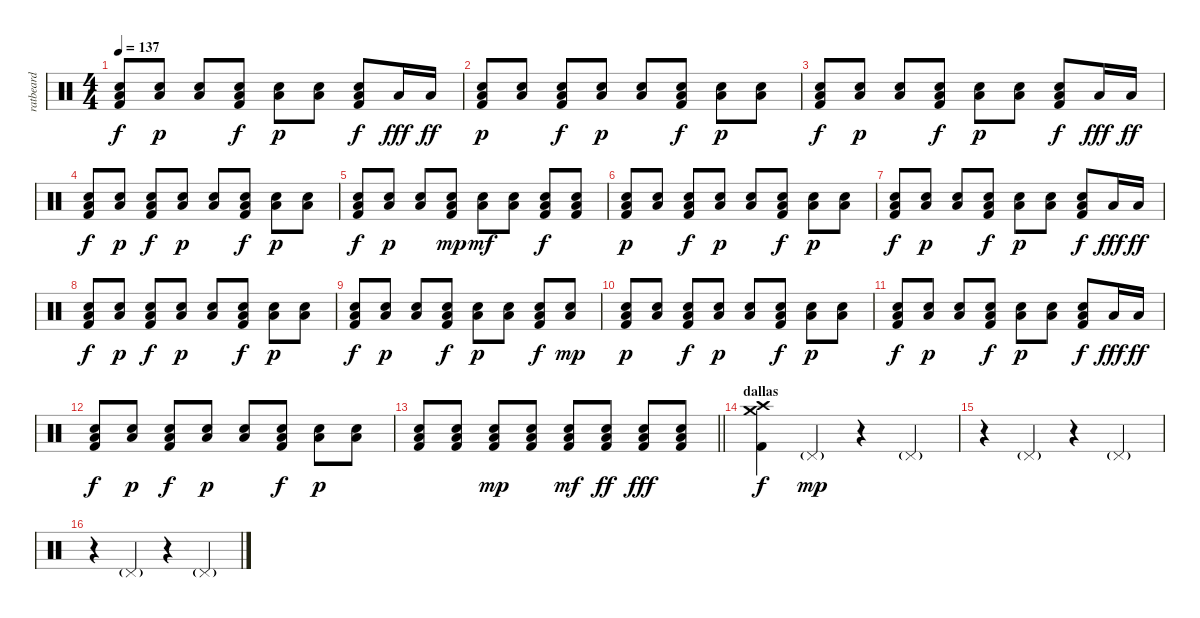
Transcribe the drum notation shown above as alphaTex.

\track ("ratbeard" "ratbeard") {instrument percussion}
\staff {score}
\articulation defaults
\ts (4 4)
\tempo 137
\clef neutral
\ks c
("Low Floor Tom (hit)" "Electric Snare (hit)" "Kick (hit) 2").8{dy f} ("Low Floor Tom (hit)" "Electric Snare (hit)").8{dy p} ("Low Floor Tom (hit)" "Electric Snare (hit)").8 ("Low Floor Tom (hit)" "Electric Snare (hit)" "Kick (hit) 2").8{dy f} ("Low Floor Tom (hit)" "Electric Snare (hit)").8{dy p} ("Low Floor Tom (hit)" "Electric Snare (hit)").8 ("Low Floor Tom (hit)" "Electric Snare (hit)" "Kick (hit) 2").8{dy f} "Low Floor Tom (hit)".16{dy fff} "Low Floor Tom (hit)".16{dy ff} |
("Low Floor Tom (hit)" "Electric Snare (hit)" "Kick (hit) 2").8{dy p} ("Low Floor Tom (hit)" "Electric Snare (hit)").8 ("Low Floor Tom (hit)" "Electric Snare (hit)" "Kick (hit) 2").8{dy f} ("Low Floor Tom (hit)" "Electric Snare (hit)").8{dy p} ("Low Floor Tom (hit)" "Electric Snare (hit)").8 ("Low Floor Tom (hit)" "Electric Snare (hit)" "Kick (hit) 2").8{dy f} ("Low Floor Tom (hit)" "Electric Snare (hit)").8{dy p} ("Low Floor Tom (hit)" "Electric Snare (hit)").8 |
("Low Floor Tom (hit)" "Electric Snare (hit)" "Kick (hit) 2").8{dy f} ("Low Floor Tom (hit)" "Electric Snare (hit)").8{dy p} ("Low Floor Tom (hit)" "Electric Snare (hit)").8 ("Low Floor Tom (hit)" "Electric Snare (hit)" "Kick (hit) 2").8{dy f} ("Low Floor Tom (hit)" "Electric Snare (hit)").8{dy p} ("Low Floor Tom (hit)" "Electric Snare (hit)").8 ("Low Floor Tom (hit)" "Electric Snare (hit)" "Kick (hit) 2").8{dy f} "Low Floor Tom (hit)".16{dy fff} "Low Floor Tom (hit)".16{dy ff} |
("Low Floor Tom (hit)" "Electric Snare (hit)" "Kick (hit) 2").8{dy f} ("Low Floor Tom (hit)" "Electric Snare (hit)").8{dy p} ("Low Floor Tom (hit)" "Electric Snare (hit)" "Kick (hit) 2").8{dy f} ("Low Floor Tom (hit)" "Electric Snare (hit)").8{dy p} ("Low Floor Tom (hit)" "Electric Snare (hit)").8 ("Low Floor Tom (hit)" "Electric Snare (hit)" "Kick (hit) 2").8{dy f} ("Low Floor Tom (hit)" "Electric Snare (hit)").8{dy p} ("Low Floor Tom (hit)" "Electric Snare (hit)").8 |
("Low Floor Tom (hit)" "Electric Snare (hit)" "Kick (hit) 2").8{dy f} ("Low Floor Tom (hit)" "Electric Snare (hit)").8{dy p} ("Low Floor Tom (hit)" "Electric Snare (hit)").8 ("Low Floor Tom (hit)" "Electric Snare (hit)" "Kick (hit) 2").8{dy mp} ("Low Floor Tom (hit)" "Electric Snare (hit)").8{dy mf} ("Low Floor Tom (hit)" "Electric Snare (hit)").8 ("Low Floor Tom (hit)" "Electric Snare (hit)" "Kick (hit) 2").8{dy f} ("Low Floor Tom (hit)" "Electric Snare (hit)" "Kick (hit) 2").8 |
("Low Floor Tom (hit)" "Electric Snare (hit)" "Kick (hit) 2").8{dy p} ("Low Floor Tom (hit)" "Electric Snare (hit)").8 ("Low Floor Tom (hit)" "Electric Snare (hit)" "Kick (hit) 2").8{dy f} ("Low Floor Tom (hit)" "Electric Snare (hit)").8{dy p} ("Low Floor Tom (hit)" "Electric Snare (hit)").8 ("Low Floor Tom (hit)" "Electric Snare (hit)" "Kick (hit) 2").8{dy f} ("Low Floor Tom (hit)" "Electric Snare (hit)").8{dy p} ("Low Floor Tom (hit)" "Electric Snare (hit)").8 |
("Low Floor Tom (hit)" "Electric Snare (hit)" "Kick (hit) 2").8{dy f} ("Low Floor Tom (hit)" "Electric Snare (hit)").8{dy p} ("Low Floor Tom (hit)" "Electric Snare (hit)").8 ("Low Floor Tom (hit)" "Electric Snare (hit)" "Kick (hit) 2").8{dy f} ("Low Floor Tom (hit)" "Electric Snare (hit)").8{dy p} ("Low Floor Tom (hit)" "Electric Snare (hit)").8 ("Low Floor Tom (hit)" "Electric Snare (hit)" "Kick (hit) 2").8{dy f} "Low Floor Tom (hit)".16{dy fff} "Low Floor Tom (hit)".16{dy ff} |
("Low Floor Tom (hit)" "Electric Snare (hit)" "Kick (hit) 2").8{dy f} ("Low Floor Tom (hit)" "Electric Snare (hit)").8{dy p} ("Low Floor Tom (hit)" "Electric Snare (hit)" "Kick (hit) 2").8{dy f} ("Low Floor Tom (hit)" "Electric Snare (hit)").8{dy p} ("Low Floor Tom (hit)" "Electric Snare (hit)").8 ("Low Floor Tom (hit)" "Electric Snare (hit)" "Kick (hit) 2").8{dy f} ("Low Floor Tom (hit)" "Electric Snare (hit)").8{dy p} ("Low Floor Tom (hit)" "Electric Snare (hit)").8 |
("Low Floor Tom (hit)" "Electric Snare (hit)" "Kick (hit) 2").8{dy f} ("Low Floor Tom (hit)" "Electric Snare (hit)").8{dy p} ("Low Floor Tom (hit)" "Electric Snare (hit)").8 ("Low Floor Tom (hit)" "Electric Snare (hit)" "Kick (hit) 2").8{dy f} ("Low Floor Tom (hit)" "Electric Snare (hit)").8{dy p} ("Low Floor Tom (hit)" "Electric Snare (hit)").8 ("Low Floor Tom (hit)" "Electric Snare (hit)" "Kick (hit) 2").8{dy f} ("Low Floor Tom (hit)" "Electric Snare (hit)").8{dy mp} |
("Low Floor Tom (hit)" "Electric Snare (hit)" "Kick (hit) 2").8{dy p} ("Low Floor Tom (hit)" "Electric Snare (hit)").8 ("Low Floor Tom (hit)" "Electric Snare (hit)" "Kick (hit) 2").8{dy f} ("Low Floor Tom (hit)" "Electric Snare (hit)").8{dy p} ("Low Floor Tom (hit)" "Electric Snare (hit)").8 ("Low Floor Tom (hit)" "Electric Snare (hit)" "Kick (hit) 2").8{dy f} ("Low Floor Tom (hit)" "Electric Snare (hit)").8{dy p} ("Low Floor Tom (hit)" "Electric Snare (hit)").8 |
("Low Floor Tom (hit)" "Electric Snare (hit)" "Kick (hit) 2").8{dy f} ("Low Floor Tom (hit)" "Electric Snare (hit)").8{dy p} ("Low Floor Tom (hit)" "Electric Snare (hit)").8 ("Low Floor Tom (hit)" "Electric Snare (hit)" "Kick (hit) 2").8{dy f} ("Low Floor Tom (hit)" "Electric Snare (hit)").8{dy p} ("Low Floor Tom (hit)" "Electric Snare (hit)").8 ("Low Floor Tom (hit)" "Electric Snare (hit)" "Kick (hit) 2").8{dy f} "Low Floor Tom (hit)".16{dy fff} "Low Floor Tom (hit)".16{dy ff} |
("Low Floor Tom (hit)" "Electric Snare (hit)" "Kick (hit) 2").8{dy f} ("Low Floor Tom (hit)" "Electric Snare (hit)").8{dy p} ("Low Floor Tom (hit)" "Electric Snare (hit)" "Kick (hit) 2").8{dy f} ("Low Floor Tom (hit)" "Electric Snare (hit)").8{dy p} ("Low Floor Tom (hit)" "Electric Snare (hit)").8 ("Low Floor Tom (hit)" "Electric Snare (hit)" "Kick (hit) 2").8{dy f} ("Low Floor Tom (hit)" "Electric Snare (hit)").8{dy p} ("Low Floor Tom (hit)" "Electric Snare (hit)").8 |
\barLineRight lightlight
("Low Floor Tom (hit)" "Electric Snare (hit)" "Kick (hit) 2").8 ("Low Floor Tom (hit)" "Electric Snare (hit)" "Kick (hit) 2").8 ("Low Floor Tom (hit)" "Electric Snare (hit)" "Kick (hit) 2").8{dy mp} ("Low Floor Tom (hit)" "Electric Snare (hit)" "Kick (hit) 2").8 ("Low Floor Tom (hit)" "Electric Snare (hit)" "Kick (hit) 2").8{dy mf} ("Low Floor Tom (hit)" "Electric Snare (hit)" "Kick (hit) 2").8{dy ff} ("Low Floor Tom (hit)" "Electric Snare (hit)" "Kick (hit) 2").8{dy fff} ("Low Floor Tom (hit)" "Electric Snare (hit)" "Kick (hit) 2").8 |
\section ("" "dallas")
("Crash medium (hit)" "Crash high (hit)" "Kick (hit) 2").4{dy f} "Pedal Hi-Hat (hit)"{g}.4{dy mp} r.4 "Pedal Hi-Hat (hit)"{g}.4 |
r.4 "Pedal Hi-Hat (hit)"{g}.4 r.4 "Pedal Hi-Hat (hit)"{g}.4 |
r.4 "Pedal Hi-Hat (hit)"{g}.4 r.4 "Pedal Hi-Hat (hit)"{g}.4
